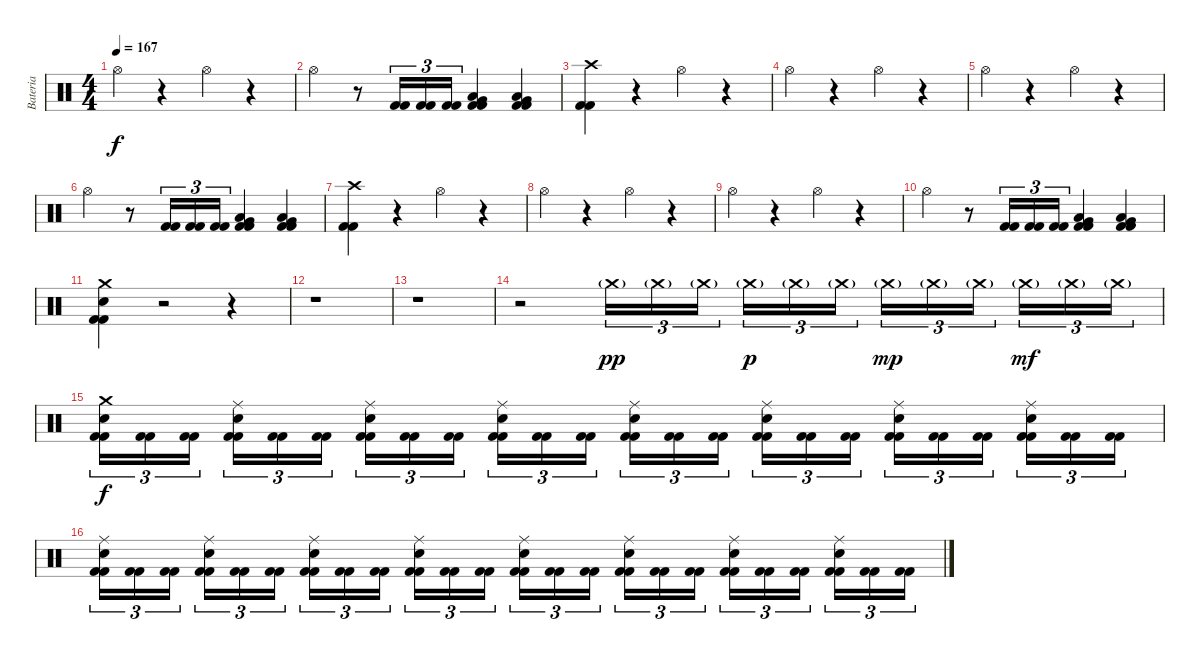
\track ("Bateria" "Bateria") {instrument percussion}
\staff {score}
\articulation defaults
\ts (4 4)
\tempo 167
\clef neutral
\ks c "Hi-Hat (open)".4{dy f}
r.4 "Hi-Hat (open)".4 r.4 |
"Hi-Hat (open)".4 r.8 ("Kick (hit) 2" "Kick (hit) 2").16{tu (3 2)} ("Kick (hit) 2" "Kick (hit) 2").16{tu (3 2)} ("Kick (hit) 2" "Kick (hit) 2").16{tu (3 2)} ("Kick (hit) 2" "Kick (hit) 2" "Low Tom (hit)" "Very Low Tom (hit)").4 ("Kick (hit) 2" "Kick (hit) 2" "Low Tom (hit)" "Very Low Tom (hit)").4 |
("Kick (hit) 2" "Kick (hit) 2" "Crash high (hit)").4 r.4 "Hi-Hat (open)".4 r.4 |
"Hi-Hat (open)".4 r.4 "Hi-Hat (open)".4 r.4 |
"Hi-Hat (open)".4 r.4 "Hi-Hat (open)".4 r.4 |
"Hi-Hat (open)".4 r.8 ("Kick (hit) 2" "Kick (hit) 2").16{tu (3 2)} ("Kick (hit) 2" "Kick (hit) 2").16{tu (3 2)} ("Kick (hit) 2" "Kick (hit) 2").16{tu (3 2)} ("Kick (hit) 2" "Kick (hit) 2" "Low Tom (hit)" "Very Low Tom (hit)").4 ("Kick (hit) 2" "Kick (hit) 2" "Low Tom (hit)" "Very Low Tom (hit)").4 |
("Kick (hit) 2" "Kick (hit) 2" "Crash high (hit)").4 r.4 "Hi-Hat (open)".4 r.4 |
"Hi-Hat (open)".4 r.4 "Hi-Hat (open)".4 r.4 |
"Hi-Hat (open)".4 r.4 "Hi-Hat (open)".4 r.4 |
"Hi-Hat (open)".4 r.8 ("Kick (hit) 2" "Kick (hit) 2").16{tu (3 2)} ("Kick (hit) 2" "Kick (hit) 2").16{tu (3 2)} ("Kick (hit) 2" "Kick (hit) 2").16{tu (3 2)} ("Kick (hit) 2" "Kick (hit) 2" "Low Tom (hit)" "Very Low Tom (hit)").4 ("Kick (hit) 2" "Kick (hit) 2" "Low Tom (hit)" "Very Low Tom (hit)").4 |
("Kick (hit) 2" "Kick (hit) 2" "Snare (hit) 2" "Crash medium (hit)").4 r.2 r.4 |
r.1 |
r.1 |
r.2 "Crash medium (hit)"{g}.16{tu (3 2) dy pp} "Crash medium (hit)"{g}.16{tu (3 2)} "Crash medium (hit)"{g}.16{tu (3 2)} "Crash medium (hit)"{g}.16{tu (3 2) dy p} "Crash medium (hit)"{g}.16{tu (3 2)} "Crash medium (hit)"{g}.16{tu (3 2)} "Crash medium (hit)"{g}.16{tu (3 2) dy mp} "Crash medium (hit)"{g}.16{tu (3 2)} "Crash medium (hit)"{g}.16{tu (3 2)} "Crash medium (hit)"{g}.16{tu (3 2) dy mf} "Crash medium (hit)"{g}.16{tu (3 2)} "Crash medium (hit)"{g}.16{tu (3 2)} |
("Kick (hit) 2" "Kick (hit) 2" "Snare (hit) 2" "Crash medium (hit)").16{tu (3 2) dy f} ("Kick (hit) 2" "Kick (hit) 2").16{tu (3 2)} ("Kick (hit) 2" "Kick (hit) 2").16{tu (3 2)} ("Kick (hit) 2" "Kick (hit) 2" "Snare (hit) 2" "Ride (middle)").16{tu (3 2)} ("Kick (hit) 2" "Kick (hit) 2").16{tu (3 2)} ("Kick (hit) 2" "Kick (hit) 2").16{tu (3 2)} ("Kick (hit) 2" "Kick (hit) 2" "Snare (hit) 2" "Ride (middle)").16{tu (3 2)} ("Kick (hit) 2" "Kick (hit) 2").16{tu (3 2)} ("Kick (hit) 2" "Kick (hit) 2").16{tu (3 2)} ("Kick (hit) 2" "Kick (hit) 2" "Snare (hit) 2" "Ride (middle)").16{tu (3 2)} ("Kick (hit) 2" "Kick (hit) 2").16{tu (3 2)} ("Kick (hit) 2" "Kick (hit) 2").16{tu (3 2)} ("Kick (hit) 2" "Kick (hit) 2" "Snare (hit) 2" "Ride (middle)").16{tu (3 2)} ("Kick (hit) 2" "Kick (hit) 2").16{tu (3 2)} ("Kick (hit) 2" "Kick (hit) 2").16{tu (3 2)} ("Kick (hit) 2" "Kick (hit) 2" "Snare (hit) 2" "Ride (middle)").16{tu (3 2)} ("Kick (hit) 2" "Kick (hit) 2").16{tu (3 2)} ("Kick (hit) 2" "Kick (hit) 2").16{tu (3 2)} ("Kick (hit) 2" "Kick (hit) 2" "Snare (hit) 2" "Ride (middle)").16{tu (3 2)} ("Kick (hit) 2" "Kick (hit) 2").16{tu (3 2)} ("Kick (hit) 2" "Kick (hit) 2").16{tu (3 2)} ("Kick (hit) 2" "Kick (hit) 2" "Snare (hit) 2" "Ride (middle)").16{tu (3 2)} ("Kick (hit) 2" "Kick (hit) 2").16{tu (3 2)} ("Kick (hit) 2" "Kick (hit) 2").16{tu (3 2)} |
("Kick (hit) 2" "Kick (hit) 2" "Snare (hit) 2" "Ride (middle)").16{tu (3 2)} ("Kick (hit) 2" "Kick (hit) 2").16{tu (3 2)} ("Kick (hit) 2" "Kick (hit) 2").16{tu (3 2)} ("Kick (hit) 2" "Kick (hit) 2" "Snare (hit) 2" "Ride (middle)").16{tu (3 2)} ("Kick (hit) 2" "Kick (hit) 2").16{tu (3 2)} ("Kick (hit) 2" "Kick (hit) 2").16{tu (3 2)} ("Kick (hit) 2" "Kick (hit) 2" "Snare (hit) 2" "Ride (middle)").16{tu (3 2)} ("Kick (hit) 2" "Kick (hit) 2").16{tu (3 2)} ("Kick (hit) 2" "Kick (hit) 2").16{tu (3 2)} ("Kick (hit) 2" "Kick (hit) 2" "Snare (hit) 2" "Ride (middle)").16{tu (3 2)} ("Kick (hit) 2" "Kick (hit) 2").16{tu (3 2)} ("Kick (hit) 2" "Kick (hit) 2").16{tu (3 2)} ("Kick (hit) 2" "Kick (hit) 2" "Snare (hit) 2" "Ride (middle)").16{tu (3 2)} ("Kick (hit) 2" "Kick (hit) 2").16{tu (3 2)} ("Kick (hit) 2" "Kick (hit) 2").16{tu (3 2)} ("Kick (hit) 2" "Kick (hit) 2" "Snare (hit) 2" "Ride (middle)").16{tu (3 2)} ("Kick (hit) 2" "Kick (hit) 2").16{tu (3 2)} ("Kick (hit) 2" "Kick (hit) 2").16{tu (3 2)} ("Kick (hit) 2" "Kick (hit) 2" "Snare (hit) 2" "Ride (middle)").16{tu (3 2)} ("Kick (hit) 2" "Kick (hit) 2").16{tu (3 2)} ("Kick (hit) 2" "Kick (hit) 2").16{tu (3 2)} ("Kick (hit) 2" "Kick (hit) 2" "Snare (hit) 2" "Ride (middle)").16{tu (3 2)} ("Kick (hit) 2" "Kick (hit) 2").16{tu (3 2)} ("Kick (hit) 2" "Kick (hit) 2").16{tu (3 2)}
